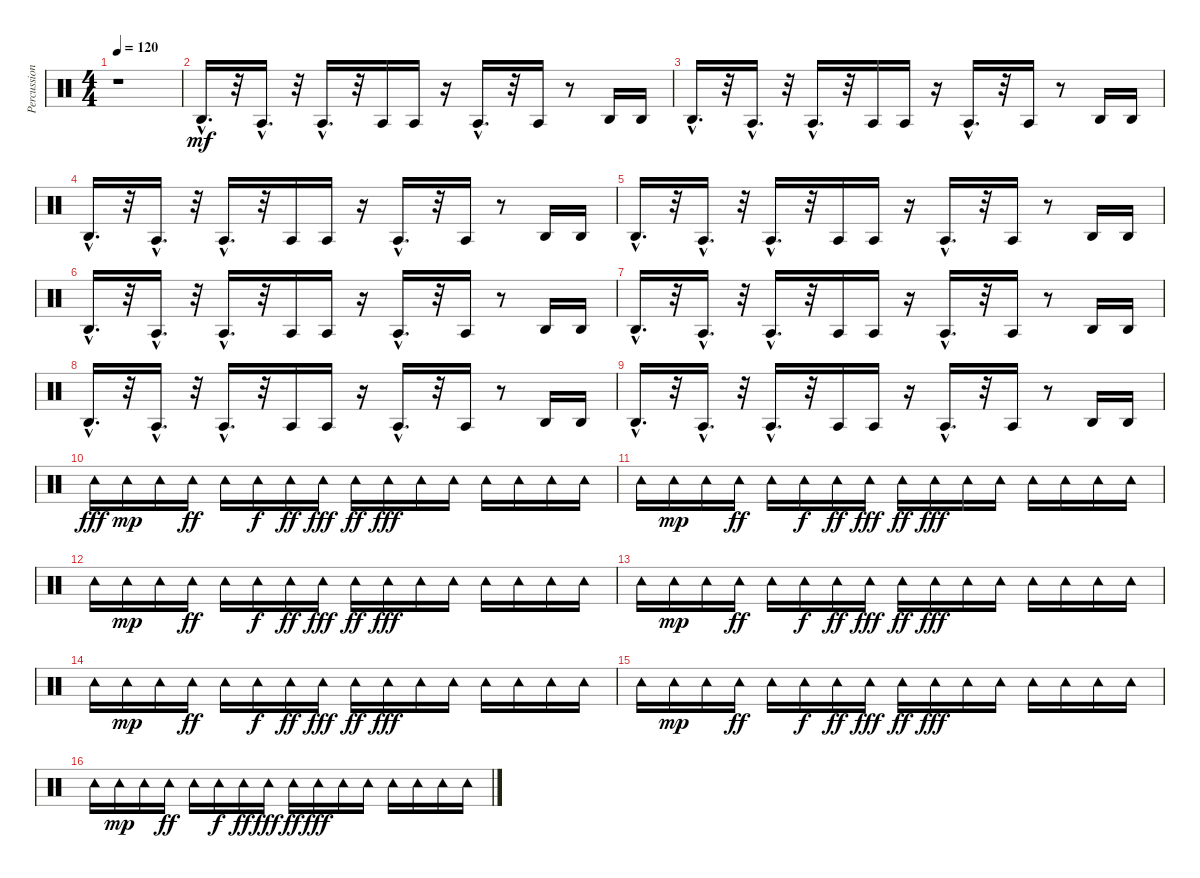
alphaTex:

\track ("Percussion" "Percussion") {instrument percussion}
\staff {score}
\articulation defaults
\ts (4 4)
\tempo 120
\clef neutral
\ks c
r.1{dy mf} |
"Agogo high (hit)"{hac}.16{d} r.32 "Agogo tow (hit)"{hac}.16{d} r.32 "Agogo tow (hit)"{hac}.16{d} r.32 "Agogo tow (hit)".16 "Agogo tow (hit)".16 r.16 "Agogo tow (hit)"{hac}.16{d} r.32 "Agogo tow (hit)".16 r.8 "Agogo high (hit)".16 "Agogo high (hit)".16 |
"Agogo high (hit)"{hac}.16{d} r.32 "Agogo tow (hit)"{hac}.16{d} r.32 "Agogo tow (hit)"{hac}.16{d} r.32 "Agogo tow (hit)".16 "Agogo tow (hit)".16 r.16 "Agogo tow (hit)"{hac}.16{d} r.32 "Agogo tow (hit)".16 r.8 "Agogo high (hit)".16 "Agogo high (hit)".16 |
"Agogo high (hit)"{hac}.16{d} r.32 "Agogo tow (hit)"{hac}.16{d} r.32 "Agogo tow (hit)"{hac}.16{d} r.32 "Agogo tow (hit)".16 "Agogo tow (hit)".16 r.16 "Agogo tow (hit)"{hac}.16{d} r.32 "Agogo tow (hit)".16 r.8 "Agogo high (hit)".16 "Agogo high (hit)".16 |
"Agogo high (hit)"{hac}.16{d} r.32 "Agogo tow (hit)"{hac}.16{d} r.32 "Agogo tow (hit)"{hac}.16{d} r.32 "Agogo tow (hit)".16 "Agogo tow (hit)".16 r.16 "Agogo tow (hit)"{hac}.16{d} r.32 "Agogo tow (hit)".16 r.8 "Agogo high (hit)".16 "Agogo high (hit)".16 |
"Agogo high (hit)"{hac}.16{d} r.32 "Agogo tow (hit)"{hac}.16{d} r.32 "Agogo tow (hit)"{hac}.16{d} r.32 "Agogo tow (hit)".16 "Agogo tow (hit)".16 r.16 "Agogo tow (hit)"{hac}.16{d} r.32 "Agogo tow (hit)".16 r.8 "Agogo high (hit)".16 "Agogo high (hit)".16 |
"Agogo high (hit)"{hac}.16{d} r.32 "Agogo tow (hit)"{hac}.16{d} r.32 "Agogo tow (hit)"{hac}.16{d} r.32 "Agogo tow (hit)".16 "Agogo tow (hit)".16 r.16 "Agogo tow (hit)"{hac}.16{d} r.32 "Agogo tow (hit)".16 r.8 "Agogo high (hit)".16 "Agogo high (hit)".16 |
"Agogo high (hit)"{hac}.16{d} r.32 "Agogo tow (hit)"{hac}.16{d} r.32 "Agogo tow (hit)"{hac}.16{d} r.32 "Agogo tow (hit)".16 "Agogo tow (hit)".16 r.16 "Agogo tow (hit)"{hac}.16{d} r.32 "Agogo tow (hit)".16 r.8 "Agogo high (hit)".16 "Agogo high (hit)".16 |
"Agogo high (hit)"{hac}.16{d} r.32 "Agogo tow (hit)"{hac}.16{d} r.32 "Agogo tow (hit)"{hac}.16{d} r.32 "Agogo tow (hit)".16 "Agogo tow (hit)".16 r.16 "Agogo tow (hit)"{hac}.16{d} r.32 "Agogo tow (hit)".16 r.8 "Agogo high (hit)".16 "Agogo high (hit)".16 |
"Tambourine (hit)".16{dy fff} "Tambourine (hit)".16{dy mp} "Tambourine (hit)".16 "Tambourine (hit)".16{dy ff} "Tambourine (hit)".16 "Tambourine (hit)".16{dy f} "Tambourine (hit)".16{dy ff} "Tambourine (hit)".16{dy fff} "Tambourine (hit)".16{dy ff} "Tambourine (hit)".16{dy fff} "Tambourine (hit)".16 "Tambourine (hit)".16 "Tambourine (hit)".16 "Tambourine (hit)".16 "Tambourine (hit)".16 "Tambourine (hit)".16 |
"Tambourine (hit)".16 "Tambourine (hit)".16{dy mp} "Tambourine (hit)".16 "Tambourine (hit)".16{dy ff} "Tambourine (hit)".16 "Tambourine (hit)".16{dy f} "Tambourine (hit)".16{dy ff} "Tambourine (hit)".16{dy fff} "Tambourine (hit)".16{dy ff} "Tambourine (hit)".16{dy fff} "Tambourine (hit)".16 "Tambourine (hit)".16 "Tambourine (hit)".16 "Tambourine (hit)".16 "Tambourine (hit)".16 "Tambourine (hit)".16 |
"Tambourine (hit)".16 "Tambourine (hit)".16{dy mp} "Tambourine (hit)".16 "Tambourine (hit)".16{dy ff} "Tambourine (hit)".16 "Tambourine (hit)".16{dy f} "Tambourine (hit)".16{dy ff} "Tambourine (hit)".16{dy fff} "Tambourine (hit)".16{dy ff} "Tambourine (hit)".16{dy fff} "Tambourine (hit)".16 "Tambourine (hit)".16 "Tambourine (hit)".16 "Tambourine (hit)".16 "Tambourine (hit)".16 "Tambourine (hit)".16 |
"Tambourine (hit)".16 "Tambourine (hit)".16{dy mp} "Tambourine (hit)".16 "Tambourine (hit)".16{dy ff} "Tambourine (hit)".16 "Tambourine (hit)".16{dy f} "Tambourine (hit)".16{dy ff} "Tambourine (hit)".16{dy fff} "Tambourine (hit)".16{dy ff} "Tambourine (hit)".16{dy fff} "Tambourine (hit)".16 "Tambourine (hit)".16 "Tambourine (hit)".16 "Tambourine (hit)".16 "Tambourine (hit)".16 "Tambourine (hit)".16 |
"Tambourine (hit)".16 "Tambourine (hit)".16{dy mp} "Tambourine (hit)".16 "Tambourine (hit)".16{dy ff} "Tambourine (hit)".16 "Tambourine (hit)".16{dy f} "Tambourine (hit)".16{dy ff} "Tambourine (hit)".16{dy fff} "Tambourine (hit)".16{dy ff} "Tambourine (hit)".16{dy fff} "Tambourine (hit)".16 "Tambourine (hit)".16 "Tambourine (hit)".16 "Tambourine (hit)".16 "Tambourine (hit)".16 "Tambourine (hit)".16 |
"Tambourine (hit)".16 "Tambourine (hit)".16{dy mp} "Tambourine (hit)".16 "Tambourine (hit)".16{dy ff} "Tambourine (hit)".16 "Tambourine (hit)".16{dy f} "Tambourine (hit)".16{dy ff} "Tambourine (hit)".16{dy fff} "Tambourine (hit)".16{dy ff} "Tambourine (hit)".16{dy fff} "Tambourine (hit)".16 "Tambourine (hit)".16 "Tambourine (hit)".16 "Tambourine (hit)".16 "Tambourine (hit)".16 "Tambourine (hit)".16 |
"Tambourine (hit)".16 "Tambourine (hit)".16{dy mp} "Tambourine (hit)".16 "Tambourine (hit)".16{dy ff} "Tambourine (hit)".16 "Tambourine (hit)".16{dy f} "Tambourine (hit)".16{dy ff} "Tambourine (hit)".16{dy fff} "Tambourine (hit)".16{dy ff} "Tambourine (hit)".16{dy fff} "Tambourine (hit)".16 "Tambourine (hit)".16 "Tambourine (hit)".16 "Tambourine (hit)".16 "Tambourine (hit)".16 "Tambourine (hit)".16
